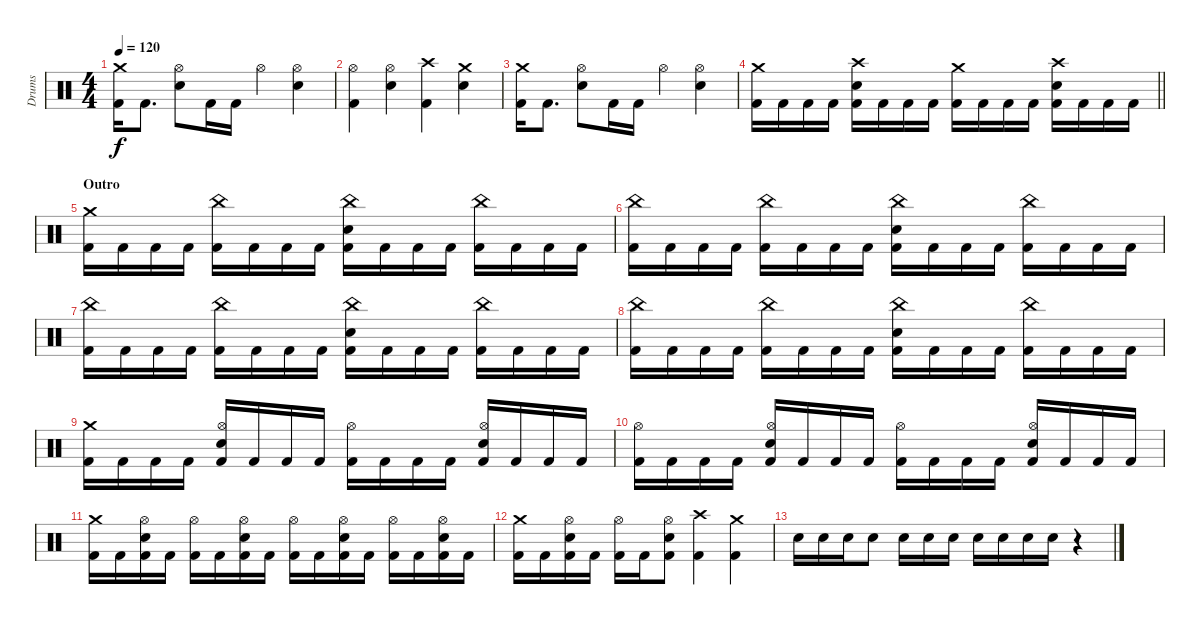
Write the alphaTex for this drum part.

\track ("Drums" "Drums") {instrument percussion}
\staff {score}
\articulation defaults
\ts (4 4)
\tempo 120
\clef neutral
\ks c
("Crash medium (hit)" "Kick (hit) 2").16{dy f} "Kick (hit) 2".8{d} ("Hi-Hat (open)" "Electric Snare (hit)").8 "Kick (hit) 2".16 "Kick (hit) 2".16 "Hi-Hat (open)".4 ("Hi-Hat (open)" "Electric Snare (hit)").4 |
("Hi-Hat (open)" "Kick (hit) 2").4 ("Hi-Hat (open)" "Electric Snare (hit)").4 ("Crash high (hit)" "Kick (hit) 2").4 ("Crash medium (hit)" "Electric Snare (hit)").4 |
("Crash medium (hit)" "Kick (hit) 2").16 "Kick (hit) 2".8{d} ("Hi-Hat (open)" "Electric Snare (hit)").8 "Kick (hit) 2".16 "Kick (hit) 2".16 "Hi-Hat (open)".4 ("Hi-Hat (open)" "Electric Snare (hit)").4 |
\barLineRight lightlight
("Crash medium (hit)" "Kick (hit) 2").16 "Kick (hit) 2".16 "Kick (hit) 2".16 "Kick (hit) 2".16 ("Crash high (hit)" "Electric Snare (hit)" "Kick (hit) 2").16 "Kick (hit) 2".16 "Kick (hit) 2".16 "Kick (hit) 2".16 ("Crash medium (hit)" "Kick (hit) 2").16 "Kick (hit) 2".16 "Kick (hit) 2".16 "Kick (hit) 2".16 ("Crash high (hit)" "Electric Snare (hit)" "Kick (hit) 2").16 "Kick (hit) 2".16 "Kick (hit) 2".16 "Kick (hit) 2".16 |
\section ("" "Outro")
("Crash medium (hit)" "Kick (hit) 2").16 "Kick (hit) 2".16 "Kick (hit) 2".16 "Kick (hit) 2".16 ("China (hit)" "Kick (hit) 2").16 "Kick (hit) 2".16 "Kick (hit) 2".16 "Kick (hit) 2".16 ("China (hit)" "Electric Snare (hit)" "Kick (hit) 2").16 "Kick (hit) 2".16 "Kick (hit) 2".16 "Kick (hit) 2".16 ("China (hit)" "Kick (hit) 2").16 "Kick (hit) 2".16 "Kick (hit) 2".16 "Kick (hit) 2".16 |
("China (hit)" "Kick (hit) 2").16 "Kick (hit) 2".16 "Kick (hit) 2".16 "Kick (hit) 2".16 ("China (hit)" "Kick (hit) 2").16 "Kick (hit) 2".16 "Kick (hit) 2".16 "Kick (hit) 2".16 ("China (hit)" "Electric Snare (hit)" "Kick (hit) 2").16 "Kick (hit) 2".16 "Kick (hit) 2".16 "Kick (hit) 2".16 ("China (hit)" "Kick (hit) 2").16 "Kick (hit) 2".16 "Kick (hit) 2".16 "Kick (hit) 2".16 |
("China (hit)" "Kick (hit) 2").16 "Kick (hit) 2".16 "Kick (hit) 2".16 "Kick (hit) 2".16 ("China (hit)" "Kick (hit) 2").16 "Kick (hit) 2".16 "Kick (hit) 2".16 "Kick (hit) 2".16 ("China (hit)" "Electric Snare (hit)" "Kick (hit) 2").16 "Kick (hit) 2".16 "Kick (hit) 2".16 "Kick (hit) 2".16 ("China (hit)" "Kick (hit) 2").16 "Kick (hit) 2".16 "Kick (hit) 2".16 "Kick (hit) 2".16 |
("China (hit)" "Kick (hit) 2").16 "Kick (hit) 2".16 "Kick (hit) 2".16 "Kick (hit) 2".16 ("China (hit)" "Kick (hit) 2").16 "Kick (hit) 2".16 "Kick (hit) 2".16 "Kick (hit) 2".16 ("China (hit)" "Electric Snare (hit)" "Kick (hit) 2").16 "Kick (hit) 2".16 "Kick (hit) 2".16 "Kick (hit) 2".16 ("China (hit)" "Kick (hit) 2").16 "Kick (hit) 2".16 "Kick (hit) 2".16 "Kick (hit) 2".16 |
("Crash medium (hit)" "Kick (hit) 2").16 "Kick (hit) 2".16 "Kick (hit) 2".16 "Kick (hit) 2".16 ("Hi-Hat (open)" "Electric Snare (hit)" "Kick (hit) 2").16 "Kick (hit) 2".16 "Kick (hit) 2".16 "Kick (hit) 2".16 ("Hi-Hat (open)" "Kick (hit) 2").16 "Kick (hit) 2".16 "Kick (hit) 2".16 "Kick (hit) 2".16 ("Hi-Hat (open)" "Electric Snare (hit)" "Kick (hit) 2").16 "Kick (hit) 2".16 "Kick (hit) 2".16 "Kick (hit) 2".16 |
("Hi-Hat (open)" "Kick (hit) 2").16 "Kick (hit) 2".16 "Kick (hit) 2".16 "Kick (hit) 2".16 ("Hi-Hat (open)" "Electric Snare (hit)" "Kick (hit) 2").16 "Kick (hit) 2".16 "Kick (hit) 2".16 "Kick (hit) 2".16 ("Hi-Hat (open)" "Kick (hit) 2").16 "Kick (hit) 2".16 "Kick (hit) 2".16 "Kick (hit) 2".16 ("Hi-Hat (open)" "Electric Snare (hit)" "Kick (hit) 2").16 "Kick (hit) 2".16 "Kick (hit) 2".16 "Kick (hit) 2".16 |
("Crash medium (hit)" "Kick (hit) 2").16 "Kick (hit) 2".16 ("Hi-Hat (open)" "Electric Snare (hit)" "Kick (hit) 2").16 "Kick (hit) 2".16 ("Hi-Hat (open)" "Kick (hit) 2").16 "Kick (hit) 2".16 ("Hi-Hat (open)" "Electric Snare (hit)" "Kick (hit) 2").16 "Kick (hit) 2".16 ("Hi-Hat (open)" "Kick (hit) 2").16 "Kick (hit) 2".16 ("Hi-Hat (open)" "Electric Snare (hit)" "Kick (hit) 2").16 "Kick (hit) 2".16 ("Hi-Hat (open)" "Kick (hit) 2").16 "Kick (hit) 2".16 ("Hi-Hat (open)" "Electric Snare (hit)" "Kick (hit) 2").16 "Kick (hit) 2".16 |
("Crash medium (hit)" "Kick (hit) 2").16 "Kick (hit) 2".16 ("Hi-Hat (open)" "Electric Snare (hit)" "Kick (hit) 2").16 "Kick (hit) 2".16 ("Hi-Hat (open)" "Kick (hit) 2").16 "Kick (hit) 2".16 ("Hi-Hat (open)" "Electric Snare (hit)" "Kick (hit) 2").8 ("Crash high (hit)" "Kick (hit) 2").4 ("Crash medium (hit)" "Kick (hit) 2").4 |
"Electric Snare (hit)".16 "Electric Snare (hit)".16 "Electric Snare (hit)".16 "Electric Snare (hit)".8 "Electric Snare (hit)".16 "Electric Snare (hit)".16 "Electric Snare (hit)".16 "Electric Snare (hit)".16 "Electric Snare (hit)".16 "Electric Snare (hit)".16 "Electric Snare (hit)".16 r.4
